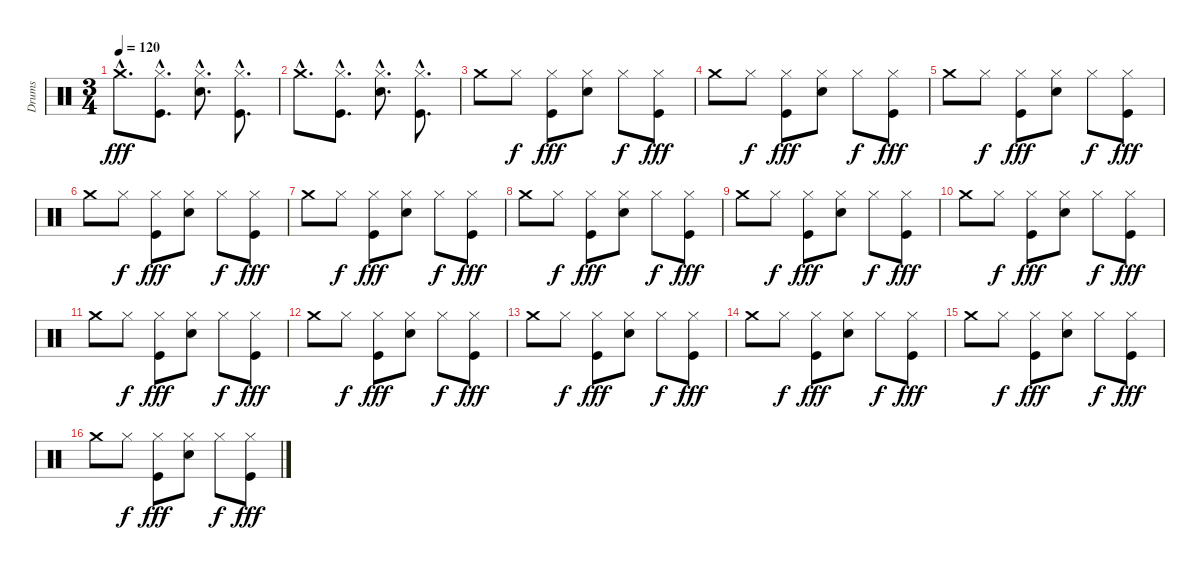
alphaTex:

\track ("Drums" "Drums") {instrument percussion}
\staff {score}
\articulation defaults
\ts (3 4)
\tempo 120
\clef neutral
\ks c "Crash medium (hit)"{hac}.8{d dy fff}
("Kick (hit)"{hac} "Hi-Hat (closed)"{hac}).8{d} ("Snare (hit) 2"{hac} "Hi-Hat (closed)"{hac}).8{d} ("Kick (hit)"{hac} "Hi-Hat (closed)"{hac}).8{d} |
"Crash medium (hit)"{hac}.8{d} ("Kick (hit)"{hac} "Hi-Hat (closed)"{hac}).8{d} ("Snare (hit) 2"{hac} "Hi-Hat (closed)"{hac}).8{d} ("Kick (hit)"{hac} "Hi-Hat (closed)"{hac}).8{d} |
"Crash medium (hit)".8 "Hi-Hat (closed)".8{dy f} ("Kick (hit)" "Hi-Hat (closed)").8{dy fff} ("Snare (hit) 2" "Hi-Hat (closed)").8 "Hi-Hat (closed)".8{dy f} ("Kick (hit)" "Hi-Hat (closed)").8{dy fff} |
"Crash medium (hit)".8 "Hi-Hat (closed)".8{dy f} ("Kick (hit)" "Hi-Hat (closed)").8{dy fff} ("Snare (hit) 2" "Hi-Hat (closed)").8 "Hi-Hat (closed)".8{dy f} ("Kick (hit)" "Hi-Hat (closed)").8{dy fff} |
"Crash medium (hit)".8 "Hi-Hat (closed)".8{dy f} ("Kick (hit)" "Hi-Hat (closed)").8{dy fff} ("Snare (hit) 2" "Hi-Hat (closed)").8 "Hi-Hat (closed)".8{dy f} ("Kick (hit)" "Hi-Hat (closed)").8{dy fff} |
"Crash medium (hit)".8 "Hi-Hat (closed)".8{dy f} ("Kick (hit)" "Hi-Hat (closed)").8{dy fff} ("Snare (hit) 2" "Hi-Hat (closed)").8 "Hi-Hat (closed)".8{dy f} ("Kick (hit)" "Hi-Hat (closed)").8{dy fff} |
"Crash medium (hit)".8 "Hi-Hat (closed)".8{dy f} ("Kick (hit)" "Hi-Hat (closed)").8{dy fff} ("Snare (hit) 2" "Hi-Hat (closed)").8 "Hi-Hat (closed)".8{dy f} ("Kick (hit)" "Hi-Hat (closed)").8{dy fff} |
"Crash medium (hit)".8 "Hi-Hat (closed)".8{dy f} ("Kick (hit)" "Hi-Hat (closed)").8{dy fff} ("Snare (hit) 2" "Hi-Hat (closed)").8 "Hi-Hat (closed)".8{dy f} ("Kick (hit)" "Hi-Hat (closed)").8{dy fff} |
"Crash medium (hit)".8 "Hi-Hat (closed)".8{dy f} ("Kick (hit)" "Hi-Hat (closed)").8{dy fff} ("Snare (hit) 2" "Hi-Hat (closed)").8 "Hi-Hat (closed)".8{dy f} ("Kick (hit)" "Hi-Hat (closed)").8{dy fff} |
"Crash medium (hit)".8 "Hi-Hat (closed)".8{dy f} ("Kick (hit)" "Hi-Hat (closed)").8{dy fff} ("Snare (hit) 2" "Hi-Hat (closed)").8 "Hi-Hat (closed)".8{dy f} ("Kick (hit)" "Hi-Hat (closed)").8{dy fff} |
"Crash medium (hit)".8 "Hi-Hat (closed)".8{dy f} ("Kick (hit)" "Hi-Hat (closed)").8{dy fff} ("Snare (hit) 2" "Hi-Hat (closed)").8 "Hi-Hat (closed)".8{dy f} ("Kick (hit)" "Hi-Hat (closed)").8{dy fff} |
"Crash medium (hit)".8 "Hi-Hat (closed)".8{dy f} ("Kick (hit)" "Hi-Hat (closed)").8{dy fff} ("Snare (hit) 2" "Hi-Hat (closed)").8 "Hi-Hat (closed)".8{dy f} ("Kick (hit)" "Hi-Hat (closed)").8{dy fff} |
"Crash medium (hit)".8 "Hi-Hat (closed)".8{dy f} ("Kick (hit)" "Hi-Hat (closed)").8{dy fff} ("Snare (hit) 2" "Hi-Hat (closed)").8 "Hi-Hat (closed)".8{dy f} ("Kick (hit)" "Hi-Hat (closed)").8{dy fff} |
"Crash medium (hit)".8 "Hi-Hat (closed)".8{dy f} ("Kick (hit)" "Hi-Hat (closed)").8{dy fff} ("Snare (hit) 2" "Hi-Hat (closed)").8 "Hi-Hat (closed)".8{dy f} ("Kick (hit)" "Hi-Hat (closed)").8{dy fff} |
"Crash medium (hit)".8 "Hi-Hat (closed)".8{dy f} ("Kick (hit)" "Hi-Hat (closed)").8{dy fff} ("Snare (hit) 2" "Hi-Hat (closed)").8 "Hi-Hat (closed)".8{dy f} ("Kick (hit)" "Hi-Hat (closed)").8{dy fff} |
"Crash medium (hit)".8 "Hi-Hat (closed)".8{dy f} ("Kick (hit)" "Hi-Hat (closed)").8{dy fff} ("Snare (hit) 2" "Hi-Hat (closed)").8 "Hi-Hat (closed)".8{dy f} ("Kick (hit)" "Hi-Hat (closed)").8{dy fff}
